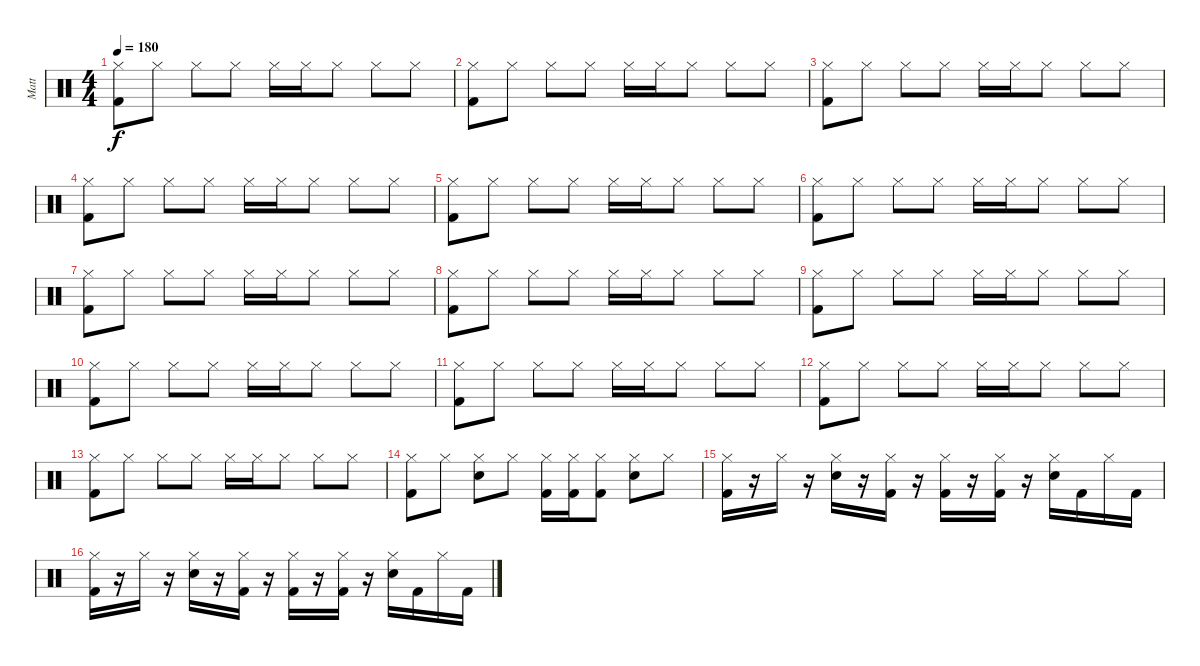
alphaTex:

\track ("Matt" "Matt") {instrument percussion}
\staff {score}
\articulation defaults
\ts (4 4)
\tempo 180
\clef neutral
\ks c
("Hi-Hat (closed)" "Kick (hit) 2").8{dy f} "Hi-Hat (closed)".8 "Hi-Hat (closed)".8 "Hi-Hat (closed)".8 "Hi-Hat (closed)".16 "Hi-Hat (closed)".16 "Hi-Hat (closed)".8 "Hi-Hat (closed)".8 "Hi-Hat (closed)".8 |
("Hi-Hat (closed)" "Kick (hit) 2").8 "Hi-Hat (closed)".8 "Hi-Hat (closed)".8 "Hi-Hat (closed)".8 "Hi-Hat (closed)".16 "Hi-Hat (closed)".16 "Hi-Hat (closed)".8 "Hi-Hat (closed)".8 "Hi-Hat (closed)".8 |
("Hi-Hat (closed)" "Kick (hit) 2").8 "Hi-Hat (closed)".8 "Hi-Hat (closed)".8 "Hi-Hat (closed)".8 "Hi-Hat (closed)".16 "Hi-Hat (closed)".16 "Hi-Hat (closed)".8 "Hi-Hat (closed)".8 "Hi-Hat (closed)".8 |
("Hi-Hat (closed)" "Kick (hit) 2").8 "Hi-Hat (closed)".8 "Hi-Hat (closed)".8 "Hi-Hat (closed)".8 "Hi-Hat (closed)".16 "Hi-Hat (closed)".16 "Hi-Hat (closed)".8 "Hi-Hat (closed)".8 "Hi-Hat (closed)".8 |
("Hi-Hat (closed)" "Kick (hit) 2").8 "Hi-Hat (closed)".8 "Hi-Hat (closed)".8 "Hi-Hat (closed)".8 "Hi-Hat (closed)".16 "Hi-Hat (closed)".16 "Hi-Hat (closed)".8 "Hi-Hat (closed)".8 "Hi-Hat (closed)".8 |
("Hi-Hat (closed)" "Kick (hit) 2").8 "Hi-Hat (closed)".8 "Hi-Hat (closed)".8 "Hi-Hat (closed)".8 "Hi-Hat (closed)".16 "Hi-Hat (closed)".16 "Hi-Hat (closed)".8 "Hi-Hat (closed)".8 "Hi-Hat (closed)".8 |
("Hi-Hat (closed)" "Kick (hit) 2").8 "Hi-Hat (closed)".8 "Hi-Hat (closed)".8 "Hi-Hat (closed)".8 "Hi-Hat (closed)".16 "Hi-Hat (closed)".16 "Hi-Hat (closed)".8 "Hi-Hat (closed)".8 "Hi-Hat (closed)".8 |
("Hi-Hat (closed)" "Kick (hit) 2").8 "Hi-Hat (closed)".8 "Hi-Hat (closed)".8 "Hi-Hat (closed)".8 "Hi-Hat (closed)".16 "Hi-Hat (closed)".16 "Hi-Hat (closed)".8 "Hi-Hat (closed)".8 "Hi-Hat (closed)".8 |
("Hi-Hat (closed)" "Kick (hit) 2").8 "Hi-Hat (closed)".8 "Hi-Hat (closed)".8 "Hi-Hat (closed)".8 "Hi-Hat (closed)".16 "Hi-Hat (closed)".16 "Hi-Hat (closed)".8 "Hi-Hat (closed)".8 "Hi-Hat (closed)".8 |
("Hi-Hat (closed)" "Kick (hit) 2").8 "Hi-Hat (closed)".8 "Hi-Hat (closed)".8 "Hi-Hat (closed)".8 "Hi-Hat (closed)".16 "Hi-Hat (closed)".16 "Hi-Hat (closed)".8 "Hi-Hat (closed)".8 "Hi-Hat (closed)".8 |
("Hi-Hat (closed)" "Kick (hit) 2").8 "Hi-Hat (closed)".8 "Hi-Hat (closed)".8 "Hi-Hat (closed)".8 "Hi-Hat (closed)".16 "Hi-Hat (closed)".16 "Hi-Hat (closed)".8 "Hi-Hat (closed)".8 "Hi-Hat (closed)".8 |
("Hi-Hat (closed)" "Kick (hit) 2").8 "Hi-Hat (closed)".8 "Hi-Hat (closed)".8 "Hi-Hat (closed)".8 "Hi-Hat (closed)".16 "Hi-Hat (closed)".16 "Hi-Hat (closed)".8 "Hi-Hat (closed)".8 "Hi-Hat (closed)".8 |
("Hi-Hat (closed)" "Kick (hit) 2").8 "Hi-Hat (closed)".8 "Hi-Hat (closed)".8 "Hi-Hat (closed)".8 "Hi-Hat (closed)".16 "Hi-Hat (closed)".16 "Hi-Hat (closed)".8 "Hi-Hat (closed)".8 "Hi-Hat (closed)".8 |
("Hi-Hat (closed)" "Kick (hit) 2").8 "Hi-Hat (closed)".8 ("Hi-Hat (closed)" "Snare (hit) 2").8 "Hi-Hat (closed)".8 ("Hi-Hat (closed)" "Kick (hit) 2").16 ("Hi-Hat (closed)" "Kick (hit) 2").16 ("Hi-Hat (closed)" "Kick (hit) 2").8 ("Hi-Hat (closed)" "Snare (hit) 2").8 "Hi-Hat (closed)".8 |
("Hi-Hat (closed)" "Kick (hit) 2").16 r.16 "Hi-Hat (closed)".16 r.16 ("Hi-Hat (closed)" "Snare (hit) 2").16 r.16 ("Hi-Hat (closed)" "Kick (hit) 2").16 r.16 ("Hi-Hat (closed)" "Kick (hit) 2").16 r.16 ("Hi-Hat (closed)" "Kick (hit) 2").16 r.16 ("Hi-Hat (closed)" "Snare (hit) 2").16 "Kick (hit) 2".16 "Hi-Hat (closed)".16 "Kick (hit) 2".16 |
("Hi-Hat (closed)" "Kick (hit) 2").16 r.16 "Hi-Hat (closed)".16 r.16 ("Hi-Hat (closed)" "Snare (hit) 2").16 r.16 ("Hi-Hat (closed)" "Kick (hit) 2").16 r.16 ("Hi-Hat (closed)" "Kick (hit) 2").16 r.16 ("Hi-Hat (closed)" "Kick (hit) 2").16 r.16 ("Hi-Hat (closed)" "Snare (hit) 2").16 "Kick (hit) 2".16 "Hi-Hat (closed)".16 "Kick (hit) 2".16
